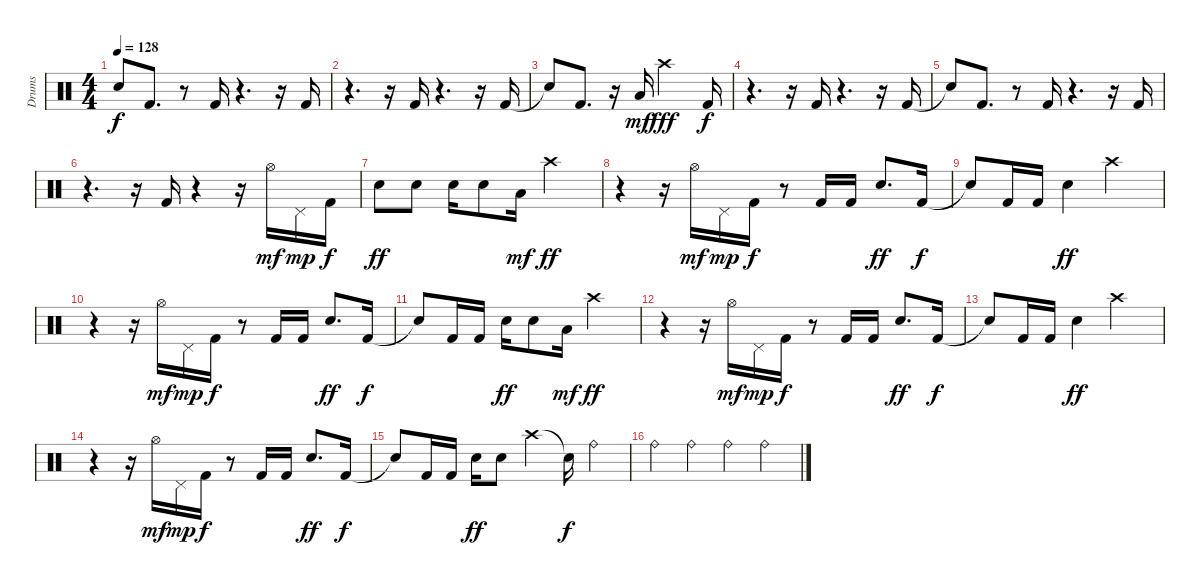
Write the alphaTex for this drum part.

\track ("Drums                               " "Drums     ") {instrument percussion}
\staff {score}
\articulation defaults
\ts (4 4)
\tempo 128
\clef neutral
\ks c "Snare (hit)"{t}.8{dy f} "Kick (hit) 2".8{d}
r.8 "Kick (hit) 2".16 r.4{d} r.16 "Kick (hit) 2".16 |
r.4{d} r.16 "Kick (hit) 2".16 r.4{d} r.16 "Kick (hit) 2".16 |
"Snare (hit)"{t}.8 "Kick (hit) 2".8{d} r.16 "Low Tom (hit)".16{dy mf} "Crash high (hit)".2{dy fff} "Kick (hit) 2".16{dy f} |
r.4{d} r.16 "Kick (hit) 2".16 r.4{d} r.16 "Kick (hit) 2".16 |
"Snare (hit)"{t}.8 "Kick (hit) 2".8{d} r.8 "Kick (hit) 2".16 r.4{d} r.16 "Kick (hit) 2".16 |
r.4{d} r.16 "Kick (hit) 2".16 r.4 r.16 "Hi-Hat (open)".16{dy mf} "Pedal Hi-Hat (hit)".16{dy mp} "Kick (hit) 2".16{dy f} |
"Snare (hit) 2".8{dy ff} "Snare (hit) 2".8 "Snare (hit) 2".16 "Snare (hit) 2".8 "Low Floor Tom (hit)".16{dy mf} "Crash high (hit)".2{dy ff} |
r.4 r.16 "Hi-Hat (open)".16{dy mf} "Pedal Hi-Hat (hit)".16{dy mp} "Kick (hit) 2".16{dy f} r.8 "Kick (hit) 2".16 "Kick (hit) 2".16 "Snare (hit) 2".8{d dy ff} "Kick (hit) 2".16{dy f} |
"Snare (hit)"{t}.8 "Kick (hit) 2".16 "Kick (hit) 2".16 "Snare (hit) 2".4{dy ff} "Crash high (hit)".2 |
r.4 r.16 "Hi-Hat (open)".16{dy mf} "Pedal Hi-Hat (hit)".16{dy mp} "Kick (hit) 2".16{dy f} r.8 "Kick (hit) 2".16 "Kick (hit) 2".16 "Snare (hit) 2".8{d dy ff} "Kick (hit) 2".16{dy f} |
"Snare (hit)"{t}.8 "Kick (hit) 2".16 "Kick (hit) 2".16 "Snare (hit) 2".16{dy ff} "Snare (hit) 2".8 "Low Floor Tom (hit)".16{dy mf} "Crash high (hit)".2{dy ff} |
r.4 r.16 "Hi-Hat (open)".16{dy mf} "Pedal Hi-Hat (hit)".16{dy mp} "Kick (hit) 2".16{dy f} r.8 "Kick (hit) 2".16 "Kick (hit) 2".16 "Snare (hit) 2".8{d dy ff} "Kick (hit) 2".16{dy f} |
"Snare (hit)"{t}.8 "Kick (hit) 2".16 "Kick (hit) 2".16 "Snare (hit) 2".4{dy ff} "Crash high (hit)".2 |
r.4 r.16 "Hi-Hat (open)".16{dy mf} "Pedal Hi-Hat (hit)".16{dy mp} "Kick (hit) 2".16{dy f} r.8 "Kick (hit) 2".16 "Kick (hit) 2".16 "Snare (hit) 2".8{d dy ff} "Kick (hit) 2".16{dy f} |
"Snare (hit)"{t}.8 "Kick (hit) 2".16 "Kick (hit) 2".16 "Snare (hit) 2".16{dy ff} "Snare (hit) 2".8 "Crash high (hit)".4 "Snare (hit)"{t}.16{dy f} "Ride (bell)".4 |
"Ride (bell)".4 "Ride (bell)".4 "Ride (bell)".4 "Ride (bell)".4
